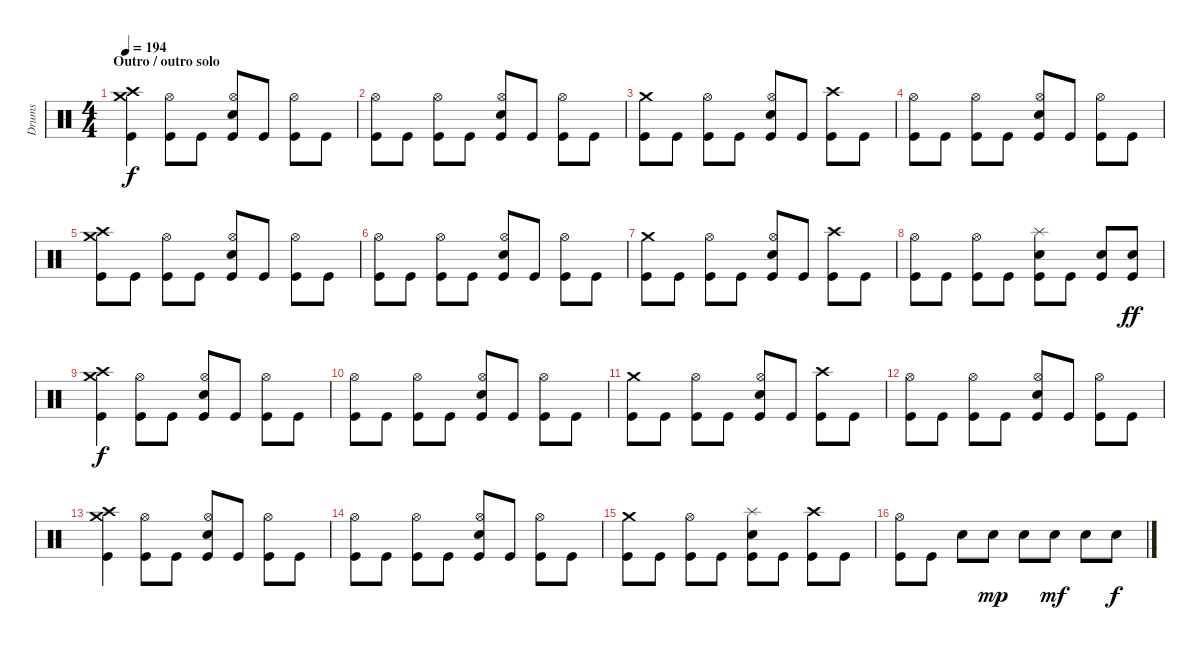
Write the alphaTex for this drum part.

\track ("Drums" "Drums") {instrument percussion}
\staff {score}
\articulation defaults
\ts (4 4)
\section ("" "Outro / outro solo")
\tempo 194
\clef neutral
\ks c
("Crash medium (hit)" "Crash high (hit)" "Kick (hit)").4{dy f} ("Hi-Hat (open)" "Kick (hit)").8 "Kick (hit)".8 ("Hi-Hat (open)" "Snare (hit) 2" "Kick (hit)").8 "Kick (hit)".8 ("Hi-Hat (open)" "Kick (hit)").8 "Kick (hit)".8 |
("Hi-Hat (open)" "Kick (hit)").8 "Kick (hit)".8 ("Hi-Hat (open)" "Kick (hit)").8 "Kick (hit)".8 ("Hi-Hat (open)" "Snare (hit) 2" "Kick (hit)").8 "Kick (hit)".8 ("Hi-Hat (open)" "Kick (hit)").8 "Kick (hit)".8 |
("Crash medium (hit)" "Kick (hit)").8 "Kick (hit)".8 ("Hi-Hat (open)" "Kick (hit)").8 "Kick (hit)".8 ("Hi-Hat (open)" "Snare (hit) 2" "Kick (hit)").8 "Kick (hit)".8 ("Crash high (hit)" "Kick (hit)").8 "Kick (hit)".8 |
("Hi-Hat (open)" "Kick (hit)").8 "Kick (hit)".8 ("Hi-Hat (open)" "Kick (hit)").8 "Kick (hit)".8 ("Hi-Hat (open)" "Snare (hit) 2" "Kick (hit)").8 "Kick (hit)".8 ("Hi-Hat (open)" "Kick (hit)").8 "Kick (hit)".8 |
("Crash medium (hit)" "Crash high (hit)" "Kick (hit)").8 "Kick (hit)".8 ("Hi-Hat (open)" "Kick (hit)").8 "Kick (hit)".8 ("Hi-Hat (open)" "Snare (hit) 2" "Kick (hit)").8 "Kick (hit)".8 ("Hi-Hat (open)" "Kick (hit)").8 "Kick (hit)".8 |
("Hi-Hat (open)" "Kick (hit)").8 "Kick (hit)".8 ("Hi-Hat (open)" "Kick (hit)").8 "Kick (hit)".8 ("Hi-Hat (open)" "Snare (hit) 2" "Kick (hit)").8 "Kick (hit)".8 ("Hi-Hat (open)" "Kick (hit)").8 "Kick (hit)".8 |
("Crash medium (hit)" "Kick (hit)").8 "Kick (hit)".8 ("Hi-Hat (open)" "Kick (hit)").8 "Kick (hit)".8 ("Hi-Hat (open)" "Snare (hit) 2" "Kick (hit)").8 "Kick (hit)".8 ("Crash high (hit)" "Kick (hit)").8 "Kick (hit)".8 |
("Hi-Hat (open)" "Kick (hit)").8 "Kick (hit)".8 ("Hi-Hat (open)" "Kick (hit)").8 "Kick (hit)".8 ("Splash (hit)" "Snare (hit) 2" "Kick (hit)").8 "Kick (hit)".8 ("Snare (hit) 2" "Kick (hit)").8 ("Snare (hit) 2" "Kick (hit)").8{dy ff} |
("Crash medium (hit)" "Crash high (hit)" "Kick (hit)").4{dy f} ("Hi-Hat (open)" "Kick (hit)").8 "Kick (hit)".8 ("Hi-Hat (open)" "Snare (hit) 2" "Kick (hit)").8 "Kick (hit)".8 ("Hi-Hat (open)" "Kick (hit)").8 "Kick (hit)".8 |
("Hi-Hat (open)" "Kick (hit)").8 "Kick (hit)".8 ("Hi-Hat (open)" "Kick (hit)").8 "Kick (hit)".8 ("Hi-Hat (open)" "Snare (hit) 2" "Kick (hit)").8 "Kick (hit)".8 ("Hi-Hat (open)" "Kick (hit)").8 "Kick (hit)".8 |
("Crash medium (hit)" "Kick (hit)").8 "Kick (hit)".8 ("Hi-Hat (open)" "Kick (hit)").8 "Kick (hit)".8 ("Hi-Hat (open)" "Snare (hit) 2" "Kick (hit)").8 "Kick (hit)".8 ("Crash high (hit)" "Kick (hit)").8 "Kick (hit)".8 |
("Hi-Hat (open)" "Kick (hit)").8 "Kick (hit)".8 ("Hi-Hat (open)" "Kick (hit)").8 "Kick (hit)".8 ("Hi-Hat (open)" "Snare (hit) 2" "Kick (hit)").8 "Kick (hit)".8 ("Hi-Hat (open)" "Kick (hit)").8 "Kick (hit)".8 |
("Crash medium (hit)" "Crash high (hit)" "Kick (hit)").4 ("Hi-Hat (open)" "Kick (hit)").8 "Kick (hit)".8 ("Hi-Hat (open)" "Snare (hit) 2" "Kick (hit)").8 "Kick (hit)".8 ("Hi-Hat (open)" "Kick (hit)").8 "Kick (hit)".8 |
("Hi-Hat (open)" "Kick (hit)").8 "Kick (hit)".8 ("Hi-Hat (open)" "Kick (hit)").8 "Kick (hit)".8 ("Hi-Hat (open)" "Snare (hit) 2" "Kick (hit)").8 "Kick (hit)".8 ("Hi-Hat (open)" "Kick (hit)").8 "Kick (hit)".8 |
("Crash medium (hit)" "Kick (hit)").8 "Kick (hit)".8 ("Hi-Hat (open)" "Kick (hit)").8 "Kick (hit)".8 ("Splash (hit)" "Snare (hit) 2" "Kick (hit)").8 "Kick (hit)".8 ("Crash high (hit)" "Kick (hit)").8 "Kick (hit)".8 |
("Hi-Hat (open)" "Kick (hit)").8 "Kick (hit)".8 "Snare (hit) 2".8 "Snare (hit) 2".8{dy mp} "Snare (hit) 2".8 "Snare (hit) 2".8{dy mf} "Snare (hit) 2".8 "Snare (hit) 2".8{dy f}
